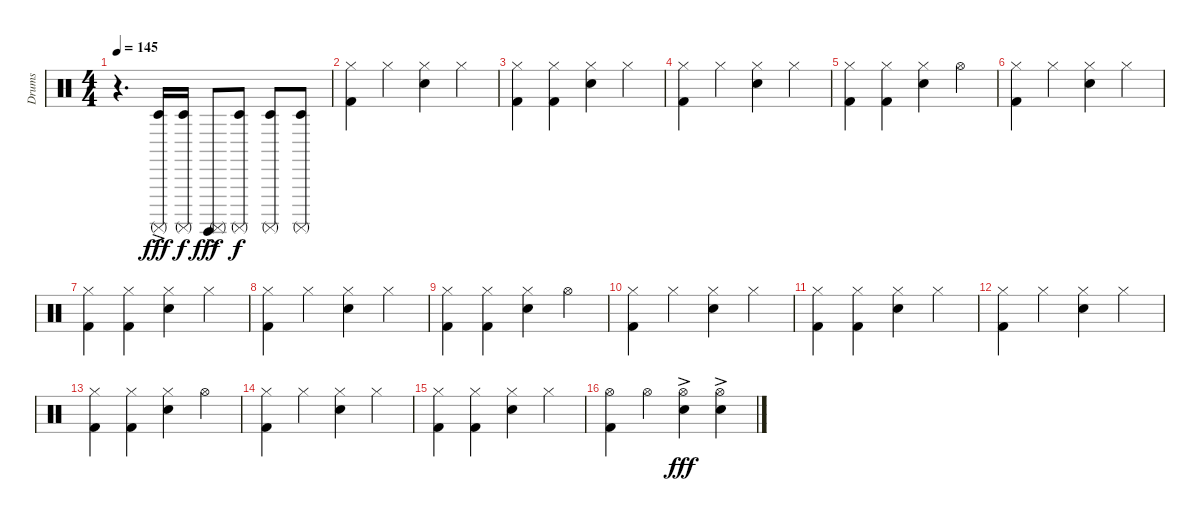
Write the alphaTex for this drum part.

\track ("Drums" "Drums") {instrument percussion}
\staff {score}
\articulation defaults
\ts (4 4)
\tempo 145
\clef neutral
\ks c
r.4{d dy f} ("Timbale low (hit)"{ac} "Surdo (mute)"{ac}).16{dy fff} ("Timbale low (hit)" "Surdo (mute)").16{dy f} ("Surdo (hit)" "Surdo (mute)"{ac}).8{dy fff} ("Timbale low (hit)" "Surdo (mute)").8{dy f} ("Timbale low (hit)" "Surdo (mute)").8 ("Timbale low (hit)" "Surdo (mute)").8 |
("Kick (hit) 2" "Hi-Hat (closed)").4{volume 12} "Hi-Hat (closed)".4 ("Snare (hit) 2" "Hi-Hat (closed)").4 "Hi-Hat (closed)".4 |
("Kick (hit) 2" "Hi-Hat (closed)").4 ("Kick (hit) 2" "Hi-Hat (closed)").4 ("Snare (hit) 2" "Hi-Hat (closed)").4 "Hi-Hat (closed)".4 |
("Kick (hit) 2" "Hi-Hat (closed)").4 "Hi-Hat (closed)".4 ("Snare (hit) 2" "Hi-Hat (closed)").4 "Hi-Hat (closed)".4 |
("Kick (hit) 2" "Hi-Hat (closed)").4 ("Kick (hit) 2" "Hi-Hat (closed)").4 ("Snare (hit) 2" "Hi-Hat (closed)").4 "Hi-Hat (open)".4 |
("Kick (hit) 2" "Hi-Hat (closed)").4 "Hi-Hat (closed)".4 ("Snare (hit) 2" "Hi-Hat (closed)").4 "Hi-Hat (closed)".4 |
("Kick (hit) 2" "Hi-Hat (closed)").4 ("Kick (hit) 2" "Hi-Hat (closed)").4 ("Snare (hit) 2" "Hi-Hat (closed)").4 "Hi-Hat (closed)".4 |
("Kick (hit) 2" "Hi-Hat (closed)").4 "Hi-Hat (closed)".4 ("Snare (hit) 2" "Hi-Hat (closed)").4 "Hi-Hat (closed)".4 |
("Kick (hit) 2" "Hi-Hat (closed)").4 ("Kick (hit) 2" "Hi-Hat (closed)").4 ("Snare (hit) 2" "Hi-Hat (closed)").4 "Hi-Hat (open)".4 |
("Kick (hit) 2" "Hi-Hat (closed)").4 "Hi-Hat (closed)".4 ("Snare (hit) 2" "Hi-Hat (closed)").4 "Hi-Hat (closed)".4 |
("Kick (hit) 2" "Hi-Hat (closed)").4 ("Kick (hit) 2" "Hi-Hat (closed)").4 ("Snare (hit) 2" "Hi-Hat (closed)").4 "Hi-Hat (closed)".4 |
("Kick (hit) 2" "Hi-Hat (closed)").4 "Hi-Hat (closed)".4 ("Snare (hit) 2" "Hi-Hat (closed)").4 "Hi-Hat (closed)".4 |
("Kick (hit) 2" "Hi-Hat (closed)").4 ("Kick (hit) 2" "Hi-Hat (closed)").4 ("Snare (hit) 2" "Hi-Hat (closed)").4 "Hi-Hat (open)".4 |
("Kick (hit) 2" "Hi-Hat (closed)").4{volume 14} "Hi-Hat (closed)".4 ("Snare (hit) 2" "Hi-Hat (closed)").4 "Hi-Hat (closed)".4 |
("Kick (hit) 2" "Hi-Hat (closed)").4 ("Kick (hit) 2" "Hi-Hat (closed)").4 ("Snare (hit) 2" "Hi-Hat (closed)").4 "Hi-Hat (closed)".4 |
("Kick (hit) 2" "Hi-Hat (open)").4 "Hi-Hat (open)".4 ("Snare (hit) 2"{ac} "Hi-Hat (open)").4{dy fff} ("Snare (hit) 2"{ac} "Hi-Hat (open)").4
